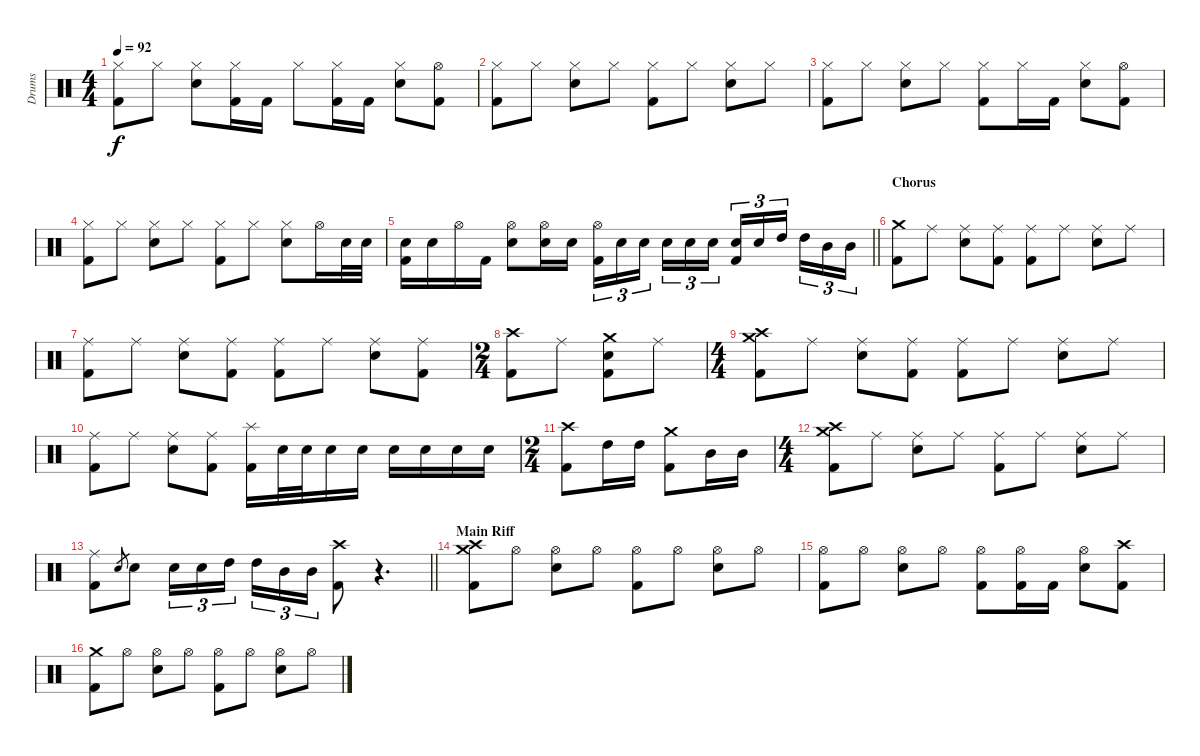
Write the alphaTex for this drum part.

\track ("Drums" "Drums") {instrument percussion}
\staff {score}
\articulation defaults
\ts (4 4)
\tempo 92
\clef neutral
\ks c
("Hi-Hat (closed)" "Kick (hit) 2").8{dy f} "Hi-Hat (closed)".8 ("Hi-Hat (closed)" "Electric Snare (hit)").8 ("Hi-Hat (closed)" "Kick (hit) 2").16 "Kick (hit) 2".16 "Hi-Hat (closed)".8 ("Hi-Hat (closed)" "Kick (hit) 2").16 "Kick (hit) 2".16 ("Hi-Hat (closed)" "Electric Snare (hit)").8 ("Hi-Hat (open)" "Kick (hit) 2").8 |
("Hi-Hat (closed)" "Kick (hit) 2").8 "Hi-Hat (closed)".8 ("Hi-Hat (closed)" "Electric Snare (hit)").8 "Hi-Hat (closed)".8 ("Hi-Hat (closed)" "Kick (hit) 2").8 "Hi-Hat (closed)".8 ("Hi-Hat (closed)" "Electric Snare (hit)").8 "Hi-Hat (closed)".8 |
("Hi-Hat (closed)" "Kick (hit) 2").8 "Hi-Hat (closed)".8 ("Hi-Hat (closed)" "Electric Snare (hit)").8 "Hi-Hat (closed)".8 ("Hi-Hat (closed)" "Kick (hit) 2").8 "Hi-Hat (closed)".16 "Kick (hit) 2".16 ("Hi-Hat (closed)" "Electric Snare (hit)").8 ("Hi-Hat (open)" "Kick (hit) 2").8 |
("Hi-Hat (closed)" "Kick (hit) 2").8 "Hi-Hat (closed)".8 ("Hi-Hat (closed)" "Electric Snare (hit)").8 "Hi-Hat (closed)".8 ("Hi-Hat (closed)" "Kick (hit) 2").8 "Hi-Hat (closed)".8 ("Hi-Hat (closed)" "Electric Snare (hit)").8 "Hi-Hat (open)".16 "Electric Snare (hit)".32 "Electric Snare (hit)".32 |
\barLineRight lightlight
("Electric Snare (hit)" "Kick (hit) 2").16 "Electric Snare (hit)".16 "Hi-Hat (open)".16 "Kick (hit) 2".16 ("Hi-Hat (open)" "Electric Snare (hit)").8 ("Hi-Hat (open)" "Electric Snare (hit)").16 "Electric Snare (hit)".16 ("Hi-Hat (open)" "Kick (hit) 2").16{tu (3 2)} "Electric Snare (hit)".16{tu (3 2)} "Electric Snare (hit)".16{tu (3 2) beam splitsecondary} "Electric Snare (hit)".16{tu (3 2)} "Electric Snare (hit)".16{tu (3 2)} "Electric Snare (hit)".16{tu (3 2)} ("Electric Snare (hit)" "Kick (hit) 2").16{tu (3 2)} "Electric Snare (hit)".16{tu (3 2)} "High Tom (hit)".16{tu (3 2) beam splitsecondary} "High Tom (hit)".16{tu (3 2)} "Mid Tom (hit)".16{tu (3 2)} "Mid Tom (hit)".16{tu (3 2)} |
\section ("" "Chorus")
("Crash medium (hit)" "Kick (hit) 2").8 "Ride (middle)".8 ("Ride (middle)" "Electric Snare (hit)").8 ("Ride (middle)" "Kick (hit) 2").8 ("Ride (middle)" "Kick (hit) 2").8 "Ride (middle)".8 ("Ride (middle)" "Electric Snare (hit)").8 "Ride (middle)".8 |
("Ride (middle)" "Kick (hit) 2").8 "Ride (middle)".8 ("Ride (middle)" "Electric Snare (hit)").8 ("Ride (middle)" "Kick (hit) 2").8 ("Ride (middle)" "Kick (hit) 2").8 "Ride (middle)".8 ("Ride (middle)" "Electric Snare (hit)").8 ("Ride (middle)" "Kick (hit) 2").8 |
\ts (2 4)
("Crash high (hit)" "Kick (hit) 2").8 "Ride (middle)".8 ("Crash medium (hit)" "Electric Snare (hit)" "Kick (hit) 2").8 "Ride (middle)".8 |
\ts (4 4)
("Crash medium (hit)" "Crash high (hit)" "Kick (hit) 2").8 "Ride (middle)".8 ("Ride (middle)" "Electric Snare (hit)").8 ("Ride (middle)" "Kick (hit) 2").8 ("Ride (middle)" "Kick (hit) 2").8 "Ride (middle)".8 ("Ride (middle)" "Electric Snare (hit)").8 "Ride (middle)".8 |
("Ride (middle)" "Kick (hit) 2").8 "Ride (middle)".8 ("Ride (middle)" "Electric Snare (hit)").8 ("Ride (middle)" "Kick (hit) 2").8 ("Splash (hit)" "Kick (hit) 2").16 "Electric Snare (hit)".32 "Electric Snare (hit)".32 "Electric Snare (hit)".16 "Electric Snare (hit)".16 "Electric Snare (hit)".16 "Electric Snare (hit)".16 "Electric Snare (hit)".16 "Electric Snare (hit)".16 |
\ts (2 4)
("Crash high (hit)" "Kick (hit) 2").8 "High Tom (hit)".16 "High Tom (hit)".16 ("Crash medium (hit)" "Kick (hit) 2").8 "Mid Tom (hit)".16 "Mid Tom (hit)".16 |
\ts (4 4)
("Crash medium (hit)" "Crash high (hit)" "Kick (hit) 2").8 "Ride (middle)".8 ("Ride (middle)" "Electric Snare (hit)").8 "Ride (middle)".8 ("Ride (middle)" "Kick (hit) 2").8 "Ride (middle)".8 ("Ride (middle)" "Electric Snare (hit)").8 "Ride (middle)".8 |
\barLineRight lightlight
("Ride (middle)" "Kick (hit) 2").8 "Electric Snare (hit)".8{gr} "Electric Snare (hit)".8 "Electric Snare (hit)".16{tu (3 2)} "Electric Snare (hit)".16{tu (3 2)} "High Tom (hit)".16{tu (3 2) beam splitsecondary} "High Tom (hit)".16{tu (3 2)} "Mid Tom (hit)".16{tu (3 2)} "Mid Tom (hit)".16{tu (3 2)} ("Crash high (hit)" "Kick (hit) 2").8 r.4{d volume 0} |
\section ("" "Main Riff")
("Crash medium (hit)" "Crash high (hit)" "Kick (hit) 2").8{volume 16} "Hi-Hat (open)".8 ("Hi-Hat (open)" "Electric Snare (hit)").8 "Hi-Hat (open)".8 ("Hi-Hat (open)" "Kick (hit) 2").8 "Hi-Hat (open)".8 ("Hi-Hat (open)" "Electric Snare (hit)").8 "Hi-Hat (open)".8 |
("Hi-Hat (open)" "Kick (hit) 2").8 "Hi-Hat (open)".8 ("Hi-Hat (open)" "Electric Snare (hit)").8 "Hi-Hat (open)".8 ("Hi-Hat (open)" "Kick (hit) 2").8 ("Hi-Hat (open)" "Kick (hit) 2").16 "Kick (hit) 2".16 ("Hi-Hat (open)" "Electric Snare (hit)").8 ("Crash high (hit)" "Kick (hit) 2").8 |
("Crash medium (hit)" "Kick (hit) 2").8 "Hi-Hat (open)".8 ("Hi-Hat (open)" "Electric Snare (hit)").8 "Hi-Hat (open)".8 ("Hi-Hat (open)" "Kick (hit) 2").8 "Hi-Hat (open)".8 ("Hi-Hat (open)" "Electric Snare (hit)").8 "Hi-Hat (open)".8
